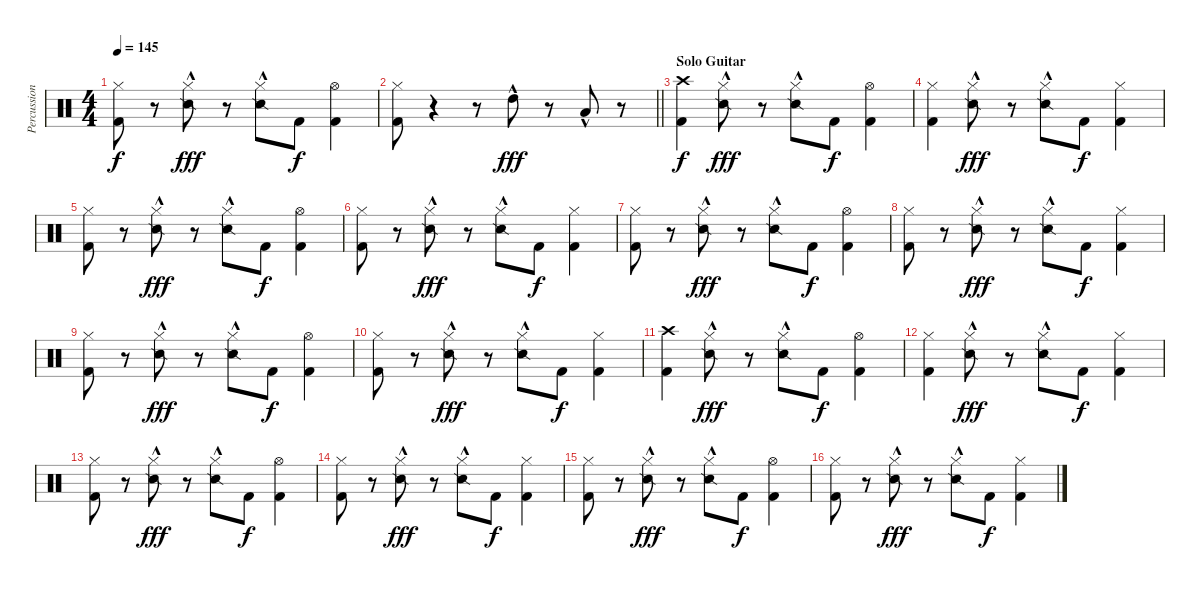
\track ("Percussion 1" "Percussion") {instrument percussion}
\staff {score}
\articulation defaults
\ts (4 4)
\tempo 145
\clef neutral
\ks c
("Hi-Hat (closed)" "Kick (hit) 2").8{dy f} r.8 ("Hi-Hat (closed)" "Snare (side stick) 2"{hac}).8{dy fff} r.8 ("Hi-Hat (closed)" "Snare (side stick) 2"{hac}).8 "Kick (hit) 2".8{dy f} ("Hi-Hat (open)" "Kick (hit) 2").4 |
\barLineRight lightlight
("Hi-Hat (closed)" "Kick (hit) 2").8 r.4 r.8 "High Tom (hit)"{hac}.8{dy fff} r.8 "Low Tom (hit)"{hac}.8 r.8 |
\section ("" "Solo Guitar")
("Crash high (hit)" "Kick (hit) 2").4{dy f} ("Hi-Hat (closed)" "Snare (side stick) 2"{hac}).8{dy fff} r.8 ("Hi-Hat (closed)" "Snare (side stick) 2"{hac}).8 "Kick (hit) 2".8{dy f} ("Hi-Hat (open)" "Kick (hit) 2").4 |
("Hi-Hat (closed)" "Kick (hit) 2").4 ("Hi-Hat (closed)" "Snare (side stick) 2"{hac}).8{dy fff} r.8 ("Hi-Hat (closed)" "Snare (side stick) 2"{hac}).8 "Kick (hit) 2".8{dy f} ("Hi-Hat (closed)" "Kick (hit) 2").4 |
("Hi-Hat (closed)" "Kick (hit) 2").8 r.8 ("Hi-Hat (closed)" "Snare (side stick) 2"{hac}).8{dy fff} r.8 ("Hi-Hat (closed)" "Snare (side stick) 2"{hac}).8 "Kick (hit) 2".8{dy f} ("Hi-Hat (open)" "Kick (hit) 2").4 |
("Hi-Hat (closed)" "Kick (hit) 2").8 r.8 ("Hi-Hat (closed)" "Snare (side stick) 2"{hac}).8{dy fff} r.8 ("Hi-Hat (closed)" "Snare (side stick) 2"{hac}).8 "Kick (hit) 2".8{dy f} ("Hi-Hat (closed)" "Kick (hit) 2").4 |
("Hi-Hat (closed)" "Kick (hit) 2").8 r.8 ("Hi-Hat (closed)" "Snare (side stick) 2"{hac}).8{dy fff} r.8 ("Hi-Hat (closed)" "Snare (side stick) 2"{hac}).8 "Kick (hit) 2".8{dy f} ("Hi-Hat (open)" "Kick (hit) 2").4 |
("Hi-Hat (closed)" "Kick (hit) 2").8 r.8 ("Hi-Hat (closed)" "Snare (side stick) 2"{hac}).8{dy fff} r.8 ("Hi-Hat (closed)" "Snare (side stick) 2"{hac}).8 "Kick (hit) 2".8{dy f} ("Hi-Hat (closed)" "Kick (hit) 2").4 |
("Hi-Hat (closed)" "Kick (hit) 2").8 r.8 ("Hi-Hat (closed)" "Snare (side stick) 2"{hac}).8{dy fff} r.8 ("Hi-Hat (closed)" "Snare (side stick) 2"{hac}).8 "Kick (hit) 2".8{dy f} ("Hi-Hat (open)" "Kick (hit) 2").4 |
("Hi-Hat (closed)" "Kick (hit) 2").8 r.8 ("Hi-Hat (closed)" "Snare (side stick) 2"{hac}).8{dy fff} r.8 ("Hi-Hat (closed)" "Snare (side stick) 2"{hac}).8 "Kick (hit) 2".8{dy f} ("Hi-Hat (closed)" "Kick (hit) 2").4 |
("Crash high (hit)" "Kick (hit) 2").4 ("Hi-Hat (closed)" "Snare (side stick) 2"{hac}).8{dy fff} r.8 ("Hi-Hat (closed)" "Snare (side stick) 2"{hac}).8 "Kick (hit) 2".8{dy f} ("Hi-Hat (open)" "Kick (hit) 2").4 |
("Hi-Hat (closed)" "Kick (hit) 2").4 ("Hi-Hat (closed)" "Snare (side stick) 2"{hac}).8{dy fff} r.8 ("Hi-Hat (closed)" "Snare (side stick) 2"{hac}).8 "Kick (hit) 2".8{dy f} ("Hi-Hat (closed)" "Kick (hit) 2").4 |
("Hi-Hat (closed)" "Kick (hit) 2").8 r.8 ("Hi-Hat (closed)" "Snare (side stick) 2"{hac}).8{dy fff} r.8 ("Hi-Hat (closed)" "Snare (side stick) 2"{hac}).8 "Kick (hit) 2".8{dy f} ("Hi-Hat (open)" "Kick (hit) 2").4 |
("Hi-Hat (closed)" "Kick (hit) 2").8 r.8 ("Hi-Hat (closed)" "Snare (side stick) 2"{hac}).8{dy fff} r.8 ("Hi-Hat (closed)" "Snare (side stick) 2"{hac}).8 "Kick (hit) 2".8{dy f} ("Hi-Hat (closed)" "Kick (hit) 2").4 |
("Hi-Hat (closed)" "Kick (hit) 2").8 r.8 ("Hi-Hat (closed)" "Snare (side stick) 2"{hac}).8{dy fff} r.8 ("Hi-Hat (closed)" "Snare (side stick) 2"{hac}).8 "Kick (hit) 2".8{dy f} ("Hi-Hat (open)" "Kick (hit) 2").4 |
("Hi-Hat (closed)" "Kick (hit) 2").8 r.8 ("Hi-Hat (closed)" "Snare (side stick) 2"{hac}).8{dy fff} r.8 ("Hi-Hat (closed)" "Snare (side stick) 2"{hac}).8 "Kick (hit) 2".8{dy f} ("Hi-Hat (closed)" "Kick (hit) 2").4
